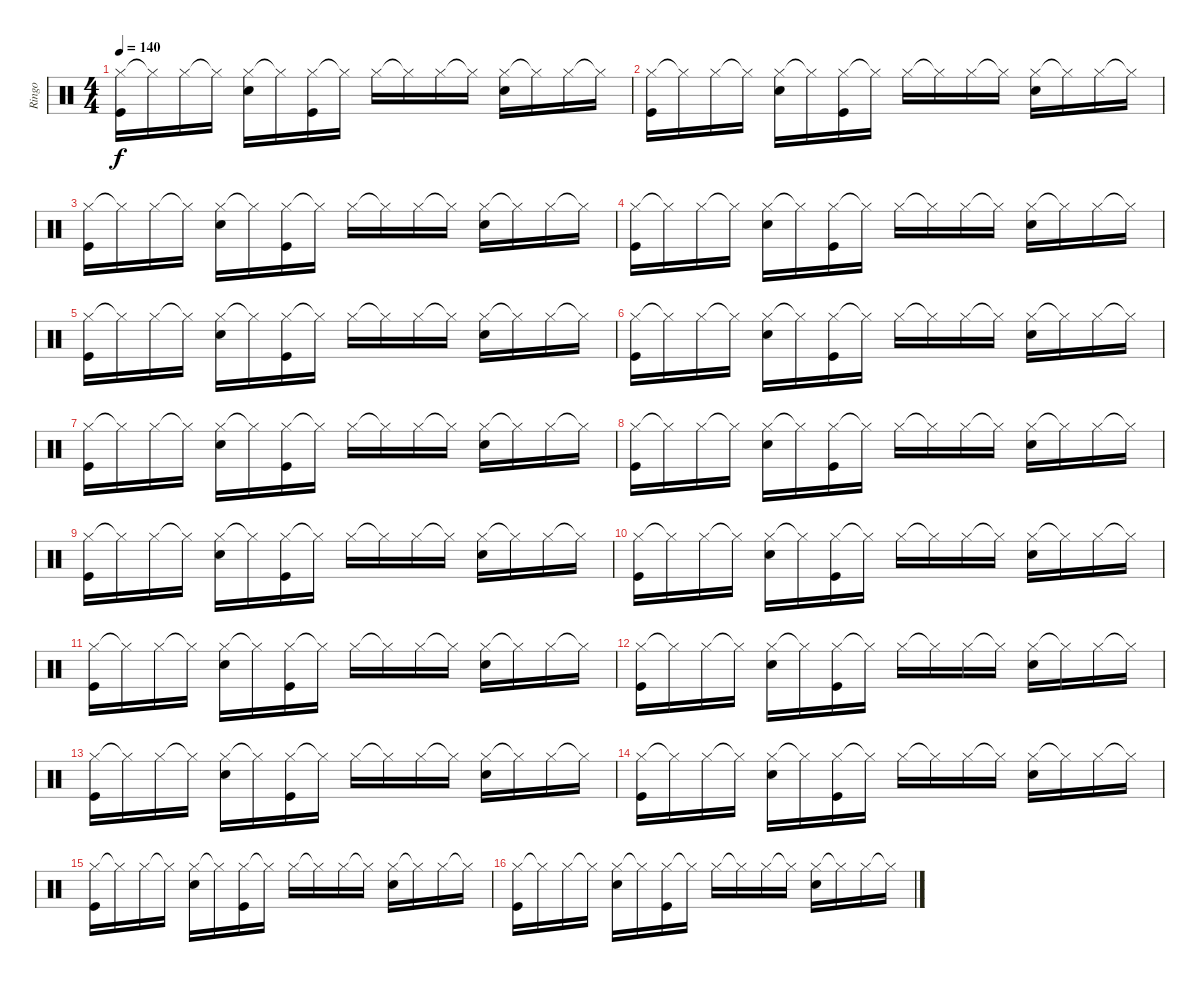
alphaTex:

\track ("Ringo" "Ringo") {instrument percussion}
\staff {score}
\articulation defaults
\ts (4 4)
\tempo 140
\clef neutral
\ks c
("Hi-Hat (closed)" "Kick (hit)").16{dy f} "Hi-Hat (closed)"{t}.16 "Hi-Hat (closed)".16 "Hi-Hat (closed)"{t}.16 ("Hi-Hat (closed)" "Snare (hit) 2").16 "Hi-Hat (closed)"{t}.16 ("Hi-Hat (closed)" "Kick (hit)").16 "Hi-Hat (closed)"{t}.16 "Hi-Hat (closed)".16 "Hi-Hat (closed)"{t}.16 "Hi-Hat (closed)".16 "Hi-Hat (closed)"{t}.16 ("Hi-Hat (closed)" "Snare (hit) 2").16 "Hi-Hat (closed)"{t}.16 "Hi-Hat (closed)".16 "Hi-Hat (closed)"{t}.16 |
("Hi-Hat (closed)" "Kick (hit)").16 "Hi-Hat (closed)"{t}.16 "Hi-Hat (closed)".16 "Hi-Hat (closed)"{t}.16 ("Hi-Hat (closed)" "Snare (hit) 2").16 "Hi-Hat (closed)"{t}.16 ("Hi-Hat (closed)" "Kick (hit)").16 "Hi-Hat (closed)"{t}.16 "Hi-Hat (closed)".16 "Hi-Hat (closed)"{t}.16 "Hi-Hat (closed)".16 "Hi-Hat (closed)"{t}.16 ("Hi-Hat (closed)" "Snare (hit) 2").16 "Hi-Hat (closed)"{t}.16 "Hi-Hat (closed)".16 "Hi-Hat (closed)"{t}.16 |
("Hi-Hat (closed)" "Kick (hit)").16 "Hi-Hat (closed)"{t}.16 "Hi-Hat (closed)".16 "Hi-Hat (closed)"{t}.16 ("Hi-Hat (closed)" "Snare (hit) 2").16 "Hi-Hat (closed)"{t}.16 ("Hi-Hat (closed)" "Kick (hit)").16 "Hi-Hat (closed)"{t}.16 "Hi-Hat (closed)".16 "Hi-Hat (closed)"{t}.16 "Hi-Hat (closed)".16 "Hi-Hat (closed)"{t}.16 ("Hi-Hat (closed)" "Snare (hit) 2").16 "Hi-Hat (closed)"{t}.16 "Hi-Hat (closed)".16 "Hi-Hat (closed)"{t}.16 |
("Hi-Hat (closed)" "Kick (hit)").16 "Hi-Hat (closed)"{t}.16 "Hi-Hat (closed)".16 "Hi-Hat (closed)"{t}.16 ("Hi-Hat (closed)" "Snare (hit) 2").16 "Hi-Hat (closed)"{t}.16 ("Hi-Hat (closed)" "Kick (hit)").16 "Hi-Hat (closed)"{t}.16 "Hi-Hat (closed)".16 "Hi-Hat (closed)"{t}.16 "Hi-Hat (closed)".16 "Hi-Hat (closed)"{t}.16 ("Hi-Hat (closed)" "Snare (hit) 2").16 "Hi-Hat (closed)"{t}.16 "Hi-Hat (closed)".16 "Hi-Hat (closed)"{t}.16 |
("Hi-Hat (closed)" "Kick (hit)").16 "Hi-Hat (closed)"{t}.16 "Hi-Hat (closed)".16 "Hi-Hat (closed)"{t}.16 ("Hi-Hat (closed)" "Snare (hit) 2").16 "Hi-Hat (closed)"{t}.16 ("Hi-Hat (closed)" "Kick (hit)").16 "Hi-Hat (closed)"{t}.16 "Hi-Hat (closed)".16 "Hi-Hat (closed)"{t}.16 "Hi-Hat (closed)".16 "Hi-Hat (closed)"{t}.16 ("Hi-Hat (closed)" "Snare (hit) 2").16 "Hi-Hat (closed)"{t}.16 "Hi-Hat (closed)".16 "Hi-Hat (closed)"{t}.16 |
("Hi-Hat (closed)" "Kick (hit)").16 "Hi-Hat (closed)"{t}.16 "Hi-Hat (closed)".16 "Hi-Hat (closed)"{t}.16 ("Hi-Hat (closed)" "Snare (hit) 2").16 "Hi-Hat (closed)"{t}.16 ("Hi-Hat (closed)" "Kick (hit)").16 "Hi-Hat (closed)"{t}.16 "Hi-Hat (closed)".16 "Hi-Hat (closed)"{t}.16 "Hi-Hat (closed)".16 "Hi-Hat (closed)"{t}.16 ("Hi-Hat (closed)" "Snare (hit) 2").16 "Hi-Hat (closed)"{t}.16 "Hi-Hat (closed)".16 "Hi-Hat (closed)"{t}.16 |
("Hi-Hat (closed)" "Kick (hit)").16 "Hi-Hat (closed)"{t}.16 "Hi-Hat (closed)".16 "Hi-Hat (closed)"{t}.16 ("Hi-Hat (closed)" "Snare (hit) 2").16 "Hi-Hat (closed)"{t}.16 ("Hi-Hat (closed)" "Kick (hit)").16 "Hi-Hat (closed)"{t}.16 "Hi-Hat (closed)".16 "Hi-Hat (closed)"{t}.16 "Hi-Hat (closed)".16 "Hi-Hat (closed)"{t}.16 ("Hi-Hat (closed)" "Snare (hit) 2").16 "Hi-Hat (closed)"{t}.16 "Hi-Hat (closed)".16 "Hi-Hat (closed)"{t}.16 |
("Hi-Hat (closed)" "Kick (hit)").16 "Hi-Hat (closed)"{t}.16 "Hi-Hat (closed)".16 "Hi-Hat (closed)"{t}.16 ("Hi-Hat (closed)" "Snare (hit) 2").16 "Hi-Hat (closed)"{t}.16 ("Hi-Hat (closed)" "Kick (hit)").16 "Hi-Hat (closed)"{t}.16 "Hi-Hat (closed)".16 "Hi-Hat (closed)"{t}.16 "Hi-Hat (closed)".16 "Hi-Hat (closed)"{t}.16 ("Hi-Hat (closed)" "Snare (hit) 2").16 "Hi-Hat (closed)"{t}.16 "Hi-Hat (closed)".16 "Hi-Hat (closed)"{t}.16 |
("Hi-Hat (closed)" "Kick (hit)").16 "Hi-Hat (closed)"{t}.16 "Hi-Hat (closed)".16 "Hi-Hat (closed)"{t}.16 ("Hi-Hat (closed)" "Snare (hit) 2").16 "Hi-Hat (closed)"{t}.16 ("Hi-Hat (closed)" "Kick (hit)").16 "Hi-Hat (closed)"{t}.16 "Hi-Hat (closed)".16 "Hi-Hat (closed)"{t}.16 "Hi-Hat (closed)".16 "Hi-Hat (closed)"{t}.16 ("Hi-Hat (closed)" "Snare (hit) 2").16 "Hi-Hat (closed)"{t}.16 "Hi-Hat (closed)".16 "Hi-Hat (closed)"{t}.16 |
("Hi-Hat (closed)" "Kick (hit)").16 "Hi-Hat (closed)"{t}.16 "Hi-Hat (closed)".16 "Hi-Hat (closed)"{t}.16 ("Hi-Hat (closed)" "Snare (hit) 2").16 "Hi-Hat (closed)"{t}.16 ("Hi-Hat (closed)" "Kick (hit)").16 "Hi-Hat (closed)"{t}.16 "Hi-Hat (closed)".16 "Hi-Hat (closed)"{t}.16 "Hi-Hat (closed)".16 "Hi-Hat (closed)"{t}.16 ("Hi-Hat (closed)" "Snare (hit) 2").16 "Hi-Hat (closed)"{t}.16 "Hi-Hat (closed)".16 "Hi-Hat (closed)"{t}.16 |
("Hi-Hat (closed)" "Kick (hit)").16 "Hi-Hat (closed)"{t}.16 "Hi-Hat (closed)".16 "Hi-Hat (closed)"{t}.16 ("Hi-Hat (closed)" "Snare (hit) 2").16 "Hi-Hat (closed)"{t}.16 ("Hi-Hat (closed)" "Kick (hit)").16 "Hi-Hat (closed)"{t}.16 "Hi-Hat (closed)".16 "Hi-Hat (closed)"{t}.16 "Hi-Hat (closed)".16 "Hi-Hat (closed)"{t}.16 ("Hi-Hat (closed)" "Snare (hit) 2").16 "Hi-Hat (closed)"{t}.16 "Hi-Hat (closed)".16 "Hi-Hat (closed)"{t}.16 |
("Hi-Hat (closed)" "Kick (hit)").16 "Hi-Hat (closed)"{t}.16 "Hi-Hat (closed)".16 "Hi-Hat (closed)"{t}.16 ("Hi-Hat (closed)" "Snare (hit) 2").16 "Hi-Hat (closed)"{t}.16 ("Hi-Hat (closed)" "Kick (hit)").16 "Hi-Hat (closed)"{t}.16 "Hi-Hat (closed)".16 "Hi-Hat (closed)"{t}.16 "Hi-Hat (closed)".16 "Hi-Hat (closed)"{t}.16 ("Hi-Hat (closed)" "Snare (hit) 2").16 "Hi-Hat (closed)"{t}.16 "Hi-Hat (closed)".16 "Hi-Hat (closed)"{t}.16 |
("Hi-Hat (closed)" "Kick (hit)").16 "Hi-Hat (closed)"{t}.16 "Hi-Hat (closed)".16 "Hi-Hat (closed)"{t}.16 ("Hi-Hat (closed)" "Snare (hit) 2").16 "Hi-Hat (closed)"{t}.16 ("Hi-Hat (closed)" "Kick (hit)").16 "Hi-Hat (closed)"{t}.16 "Hi-Hat (closed)".16 "Hi-Hat (closed)"{t}.16 "Hi-Hat (closed)".16 "Hi-Hat (closed)"{t}.16 ("Hi-Hat (closed)" "Snare (hit) 2").16 "Hi-Hat (closed)"{t}.16 "Hi-Hat (closed)".16 "Hi-Hat (closed)"{t}.16 |
("Hi-Hat (closed)" "Kick (hit)").16 "Hi-Hat (closed)"{t}.16 "Hi-Hat (closed)".16 "Hi-Hat (closed)"{t}.16 ("Hi-Hat (closed)" "Snare (hit) 2").16 "Hi-Hat (closed)"{t}.16 ("Hi-Hat (closed)" "Kick (hit)").16 "Hi-Hat (closed)"{t}.16 "Hi-Hat (closed)".16 "Hi-Hat (closed)"{t}.16 "Hi-Hat (closed)".16 "Hi-Hat (closed)"{t}.16 ("Hi-Hat (closed)" "Snare (hit) 2").16 "Hi-Hat (closed)"{t}.16 "Hi-Hat (closed)".16 "Hi-Hat (closed)"{t}.16 |
("Hi-Hat (closed)" "Kick (hit)").16 "Hi-Hat (closed)"{t}.16 "Hi-Hat (closed)".16 "Hi-Hat (closed)"{t}.16 ("Hi-Hat (closed)" "Snare (hit) 2").16 "Hi-Hat (closed)"{t}.16 ("Hi-Hat (closed)" "Kick (hit)").16 "Hi-Hat (closed)"{t}.16 "Hi-Hat (closed)".16 "Hi-Hat (closed)"{t}.16 "Hi-Hat (closed)".16 "Hi-Hat (closed)"{t}.16 ("Hi-Hat (closed)" "Snare (hit) 2").16 "Hi-Hat (closed)"{t}.16 "Hi-Hat (closed)".16 "Hi-Hat (closed)"{t}.16 |
("Hi-Hat (closed)" "Kick (hit)").16 "Hi-Hat (closed)"{t}.16 "Hi-Hat (closed)".16 "Hi-Hat (closed)"{t}.16 ("Hi-Hat (closed)" "Snare (hit) 2").16 "Hi-Hat (closed)"{t}.16 ("Hi-Hat (closed)" "Kick (hit)").16 "Hi-Hat (closed)"{t}.16 "Hi-Hat (closed)".16 "Hi-Hat (closed)"{t}.16 "Hi-Hat (closed)".16 "Hi-Hat (closed)"{t}.16 ("Hi-Hat (closed)" "Snare (hit) 2").16 "Hi-Hat (closed)"{t}.16 "Hi-Hat (closed)".16 "Hi-Hat (closed)"{t}.16
